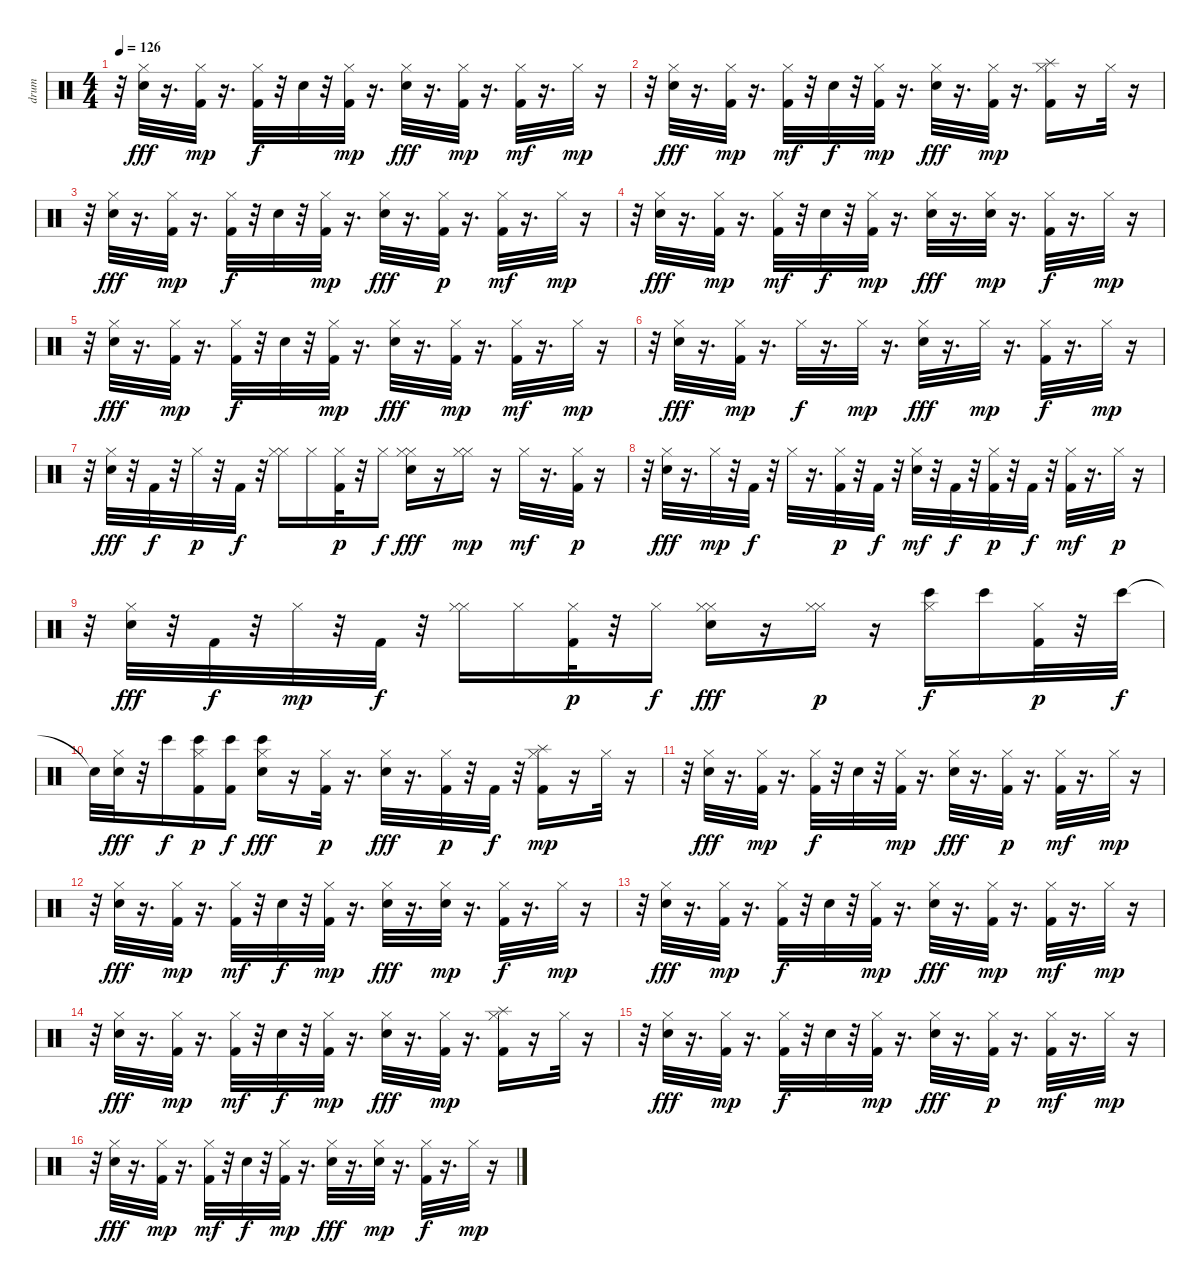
\track ("drum" "drum") {instrument percussion}
\staff {score}
\articulation defaults
\ts (4 4)
\tempo 126
\clef neutral
\ks c
r.32{dy mp} ("Electric Snare (hit)" "Hi-Hat (closed)").32{dy fff} r.16{d} ("Kick (hit) 2" "Hi-Hat (closed)").32{dy mp} r.16{d} ("Kick (hit) 2" "Hi-Hat (closed)").32{dy f} r.32 "Electric Snare (hit)".32 r.32 ("Kick (hit) 2" "Hi-Hat (closed)").32{dy mp} r.16{d} ("Electric Snare (hit)" "Hi-Hat (closed)").32{dy fff} r.16{d} ("Kick (hit) 2" "Hi-Hat (closed)").32{dy mp} r.16{d} ("Kick (hit) 2" "Hi-Hat (closed)").32{dy mf} r.16{d} "Hi-Hat (closed)".32{dy mp} r.16 |
r.32 ("Electric Snare (hit)" "Hi-Hat (closed)").32{dy fff} r.16{d} ("Kick (hit) 2" "Hi-Hat (closed)").32{dy mp} r.16{d} ("Kick (hit) 2" "Hi-Hat (closed)").32{dy mf} r.32 "Electric Snare (hit)".32{dy f} r.32 ("Kick (hit) 2" "Hi-Hat (closed)").32{dy mp} r.16{d} ("Electric Snare (hit)" "Hi-Hat (closed)").32{dy fff} r.16{d} ("Kick (hit) 2" "Hi-Hat (closed)").32{dy mp} r.16{d} ("Splash (hit)" "Kick (hit) 2" "Hi-Hat (closed)").16 r.16 "Hi-Hat (closed)".32 r.16 |
r.32 ("Electric Snare (hit)" "Hi-Hat (closed)").32{dy fff} r.16{d} ("Kick (hit) 2" "Hi-Hat (closed)").32{dy mp} r.16{d} ("Kick (hit) 2" "Hi-Hat (closed)").32{dy f} r.32 "Electric Snare (hit)".32 r.32 ("Kick (hit) 2" "Hi-Hat (closed)").32{dy mp} r.16{d} ("Electric Snare (hit)" "Hi-Hat (closed)").32{dy fff} r.16{d} ("Kick (hit) 2" "Hi-Hat (closed)").32{dy p} r.16{d} ("Kick (hit) 2" "Hi-Hat (closed)").32{dy mf} r.16{d} "Hi-Hat (closed)".32{dy mp} r.16 |
r.32 ("Electric Snare (hit)" "Hi-Hat (closed)").32{dy fff} r.16{d} ("Kick (hit) 2" "Hi-Hat (closed)").32{dy mp} r.16{d} ("Kick (hit) 2" "Hi-Hat (closed)").32{dy mf} r.32 "Electric Snare (hit)".32{dy f} r.32 ("Kick (hit) 2" "Hi-Hat (closed)").32{dy mp} r.16{d} ("Electric Snare (hit)" "Hi-Hat (closed)").32{dy fff} r.16{d} ("Electric Snare (hit)" "Hi-Hat (closed)").32{dy mp} r.16{d} ("Kick (hit) 2" "Hi-Hat (closed)").32{dy f} r.16{d} "Hi-Hat (closed)".32{dy mp} r.16 |
r.32 ("Electric Snare (hit)" "Hi-Hat (closed)").32{dy fff} r.16{d} ("Kick (hit) 2" "Hi-Hat (closed)").32{dy mp} r.16{d} ("Kick (hit) 2" "Hi-Hat (closed)").32{dy f} r.32 "Electric Snare (hit)".32 r.32 ("Kick (hit) 2" "Hi-Hat (closed)").32{dy mp} r.16{d} ("Electric Snare (hit)" "Hi-Hat (closed)").32{dy fff} r.16{d} ("Kick (hit) 2" "Hi-Hat (closed)").32{dy mp} r.16{d} ("Kick (hit) 2" "Hi-Hat (closed)").32{dy mf} r.16{d} "Hi-Hat (closed)".32{dy mp} r.16 |
r.32 ("Electric Snare (hit)" "Hi-Hat (closed)").32{dy fff} r.16{d} ("Kick (hit) 2" "Hi-Hat (closed)").32{dy mp} r.16{d} "Hi-Hat (closed)".32{dy f} r.16{d} "Hi-Hat (closed)".32{dy mp} r.16{d} ("Electric Snare (hit)" "Hi-Hat (closed)").32{dy fff} r.16{d} "Hi-Hat (closed)".32{dy mp} r.16{d} ("Kick (hit) 2" "Hi-Hat (closed)").32{dy f} r.16{d} "Hi-Hat (closed)".32{dy mp} r.16 |
r.32 ("Electric Snare (hit)" "Hi-Hat (closed)").32{dy fff} r.32 "Kick (hit) 2".32{dy f} r.32 "Hi-Hat (closed)".32{dy p} r.32 "Kick (hit) 2".32{dy f} r.32 ("Hi-Hat (closed)" "Hi-Hat (closed)").16 "Hi-Hat (closed)".16 ("Kick (hit) 2" "Hi-Hat (closed)").32{dy p} r.32 "Hi-Hat (closed)".16{dy f} ("Hi-Hat (closed)" "Electric Snare (hit)" "Hi-Hat (closed)").16{dy fff} r.16 ("Hi-Hat (closed)" "Hi-Hat (closed)").16{dy mp} r.16 "Hi-Hat (closed)".32{dy mf} r.16{d} ("Kick (hit) 2" "Hi-Hat (closed)").32{dy p} r.16 |
r.32 ("Electric Snare (hit)" "Hi-Hat (closed)").32{dy fff} r.16{d} "Hi-Hat (closed)".32{dy mp} r.32 "Kick (hit) 2".32{dy f} r.32 "Hi-Hat (closed)".32 r.16{d} ("Kick (hit) 2" "Hi-Hat (closed)").32{dy p} r.32 "Kick (hit) 2".32{dy f} r.32 ("Electric Snare (hit)" "Hi-Hat (closed)").32{dy mf} r.32 "Kick (hit) 2".32{dy f} r.32 ("Kick (hit) 2" "Hi-Hat (closed)").32{dy p} r.32 "Kick (hit) 2".32{dy f} r.32 ("Kick (hit) 2" "Hi-Hat (closed)").32{dy mf} r.16{d} "Hi-Hat (closed)".32{dy p} r.16 |
r.32 ("Electric Snare (hit)" "Hi-Hat (closed)").32{dy fff} r.32 "Kick (hit) 2".32{dy f} r.32 "Hi-Hat (closed)".32{dy mp} r.32 "Kick (hit) 2".32{dy f} r.32 ("Hi-Hat (closed)" "Hi-Hat (closed)").16 "Hi-Hat (closed)".16 ("Kick (hit) 2" "Hi-Hat (closed)").32{dy p} r.32 "Hi-Hat (closed)".16{dy f} ("Hi-Hat (closed)" "Electric Snare (hit)" "Hi-Hat (closed)").16{dy fff} r.16 ("Hi-Hat (closed)" "Hi-Hat (closed)").16{dy p} r.16 ("Bongo High (hit)" "Hi-Hat (closed)").16{dy f} "Bongo High (hit)".16 ("Kick (hit) 2" "Hi-Hat (closed)").32{dy p} r.32 "Bongo High (hit)".32{dy f} |
"Snare (hit)"{t}.32 ("Electric Snare (hit)" "Hi-Hat (closed)").32{dy fff} r.32 "Bongo High (hit)".16{dy f} ("Bongo High (hit)" "Kick (hit) 2" "Hi-Hat (closed)").16{dy p} ("Bongo High (hit)" "Kick (hit) 2").16{dy f} ("Bongo High (hit)" "Electric Snare (hit)" "Hi-Hat (closed)").16{dy fff} r.16 ("Kick (hit) 2" "Hi-Hat (closed)").32{dy p} r.16{d} ("Electric Snare (hit)" "Hi-Hat (closed)").32{dy fff} r.16{d} ("Kick (hit) 2" "Hi-Hat (closed)").32{dy p} r.32 "Kick (hit) 2".32{dy f} r.32 ("Splash (hit)" "Kick (hit) 2" "Hi-Hat (closed)").16{dy mp} r.16 "Hi-Hat (closed)".32 r.16 |
r.32 ("Electric Snare (hit)" "Hi-Hat (closed)").32{dy fff} r.16{d} ("Kick (hit) 2" "Hi-Hat (closed)").32{dy mp} r.16{d} ("Kick (hit) 2" "Hi-Hat (closed)").32{dy f} r.32 "Electric Snare (hit)".32 r.32 ("Kick (hit) 2" "Hi-Hat (closed)").32{dy mp} r.16{d} ("Electric Snare (hit)" "Hi-Hat (closed)").32{dy fff} r.16{d} ("Kick (hit) 2" "Hi-Hat (closed)").32{dy p} r.16{d} ("Kick (hit) 2" "Hi-Hat (closed)").32{dy mf} r.16{d} "Hi-Hat (closed)".32{dy mp} r.16 |
r.32 ("Electric Snare (hit)" "Hi-Hat (closed)").32{dy fff} r.16{d} ("Kick (hit) 2" "Hi-Hat (closed)").32{dy mp} r.16{d} ("Kick (hit) 2" "Hi-Hat (closed)").32{dy mf} r.32 "Electric Snare (hit)".32{dy f} r.32 ("Kick (hit) 2" "Hi-Hat (closed)").32{dy mp} r.16{d} ("Electric Snare (hit)" "Hi-Hat (closed)").32{dy fff} r.16{d} ("Electric Snare (hit)" "Hi-Hat (closed)").32{dy mp} r.16{d} ("Kick (hit) 2" "Hi-Hat (closed)").32{dy f} r.16{d} "Hi-Hat (closed)".32{dy mp} r.16 |
r.32 ("Electric Snare (hit)" "Hi-Hat (closed)").32{dy fff} r.16{d} ("Kick (hit) 2" "Hi-Hat (closed)").32{dy mp} r.16{d} ("Kick (hit) 2" "Hi-Hat (closed)").32{dy f} r.32 "Electric Snare (hit)".32 r.32 ("Kick (hit) 2" "Hi-Hat (closed)").32{dy mp} r.16{d} ("Electric Snare (hit)" "Hi-Hat (closed)").32{dy fff} r.16{d} ("Kick (hit) 2" "Hi-Hat (closed)").32{dy mp} r.16{d} ("Kick (hit) 2" "Hi-Hat (closed)").32{dy mf} r.16{d} "Hi-Hat (closed)".32{dy mp} r.16 |
r.32 ("Electric Snare (hit)" "Hi-Hat (closed)").32{dy fff} r.16{d} ("Kick (hit) 2" "Hi-Hat (closed)").32{dy mp} r.16{d} ("Kick (hit) 2" "Hi-Hat (closed)").32{dy mf} r.32 "Electric Snare (hit)".32{dy f} r.32 ("Kick (hit) 2" "Hi-Hat (closed)").32{dy mp} r.16{d} ("Electric Snare (hit)" "Hi-Hat (closed)").32{dy fff} r.16{d} ("Kick (hit) 2" "Hi-Hat (closed)").32{dy mp} r.16{d} ("Splash (hit)" "Kick (hit) 2" "Hi-Hat (closed)").16 r.16 "Hi-Hat (closed)".32 r.16 |
r.32 ("Electric Snare (hit)" "Hi-Hat (closed)").32{dy fff} r.16{d} ("Kick (hit) 2" "Hi-Hat (closed)").32{dy mp} r.16{d} ("Kick (hit) 2" "Hi-Hat (closed)").32{dy f} r.32 "Electric Snare (hit)".32 r.32 ("Kick (hit) 2" "Hi-Hat (closed)").32{dy mp} r.16{d} ("Electric Snare (hit)" "Hi-Hat (closed)").32{dy fff} r.16{d} ("Kick (hit) 2" "Hi-Hat (closed)").32{dy p} r.16{d} ("Kick (hit) 2" "Hi-Hat (closed)").32{dy mf} r.16{d} "Hi-Hat (closed)".32{dy mp} r.16 |
r.32 ("Electric Snare (hit)" "Hi-Hat (closed)").32{dy fff} r.16{d} ("Kick (hit) 2" "Hi-Hat (closed)").32{dy mp} r.16{d} ("Kick (hit) 2" "Hi-Hat (closed)").32{dy mf} r.32 "Electric Snare (hit)".32{dy f} r.32 ("Kick (hit) 2" "Hi-Hat (closed)").32{dy mp} r.16{d} ("Electric Snare (hit)" "Hi-Hat (closed)").32{dy fff} r.16{d} ("Electric Snare (hit)" "Hi-Hat (closed)").32{dy mp} r.16{d} ("Kick (hit) 2" "Hi-Hat (closed)").32{dy f} r.16{d} "Hi-Hat (closed)".32{dy mp} r.16
